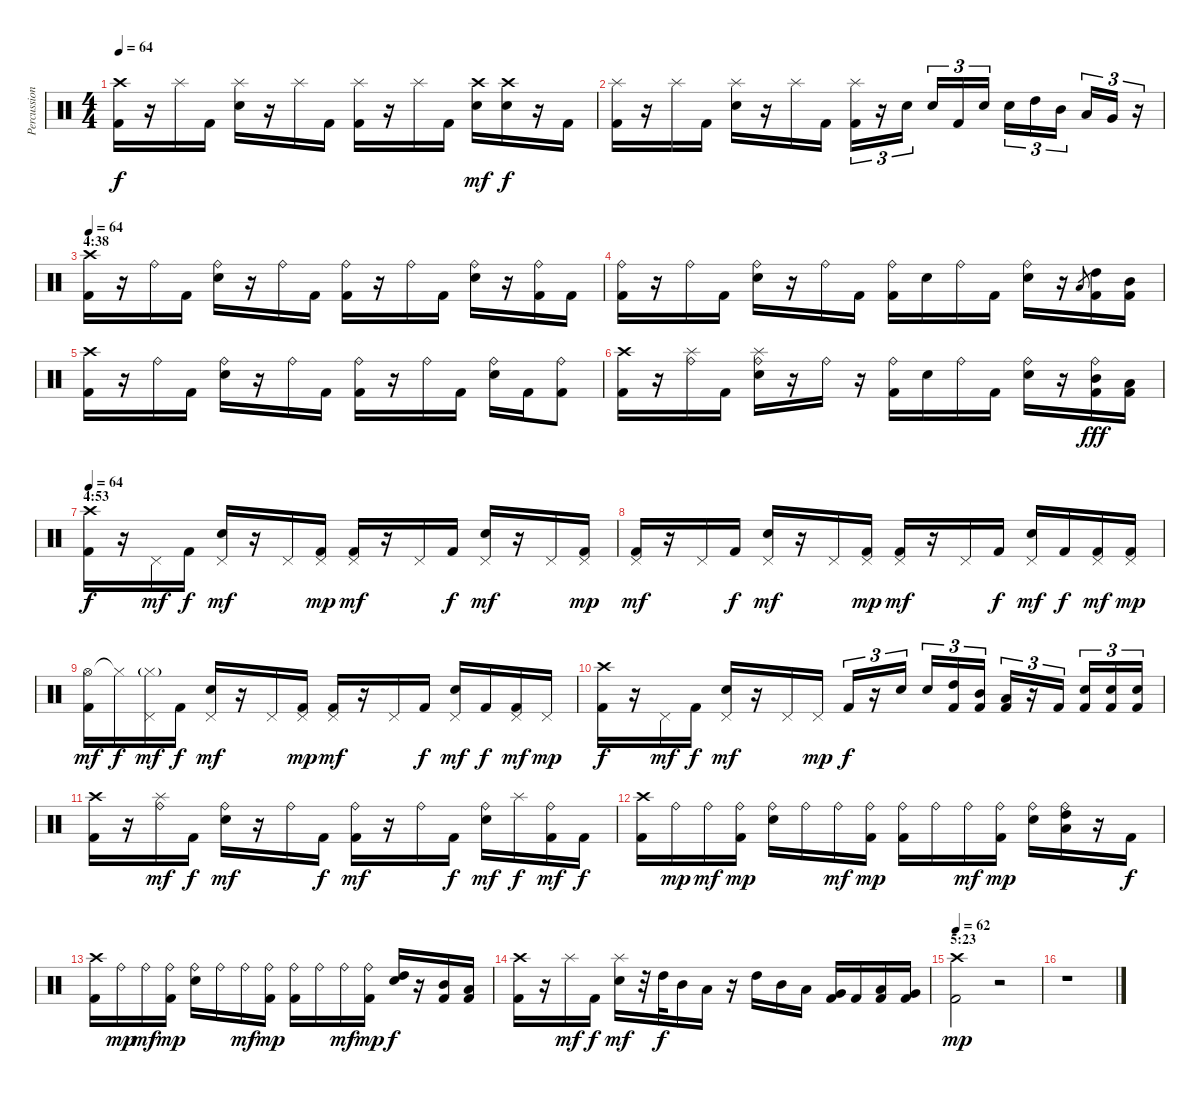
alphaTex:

\track ("Percussion" "Percussion") {instrument percussion}
\staff {score}
\articulation defaults
\ts (4 4)
\tempo 64
\clef neutral
\ks c
("Crash high (hit)" "Kick (hit) 2").16{dy f} r.16 "Splash (hit)".16 "Kick (hit) 2".16 ("Splash (hit)" "Snare (hit) 2").16 r.16 "Splash (hit)".16 "Kick (hit) 2".16 ("Splash (hit)" "Kick (hit) 2").16 r.16 "Splash (hit)".16 "Kick (hit) 2".16 ("Crash high (hit)" "Snare (hit) 2").16{dy mf} ("Crash high (hit)" "Snare (hit) 2").16{dy f} r.16 "Kick (hit) 2".16 |
("Splash (hit)" "Kick (hit) 2").16 r.16 "Splash (hit)".16 "Kick (hit) 2".16 ("Splash (hit)" "Snare (hit) 2").16 r.16 "Splash (hit)".16 "Kick (hit) 2".16 ("Splash (hit)" "Kick (hit) 2").16{tu (3 2)} r.16{tu (3 2)} "Snare (hit) 2".16{tu (3 2)} "Snare (hit) 2".16{tu (3 2)} "Kick (hit) 2".16{tu (3 2)} "Snare (hit) 2".16{tu (3 2)} "Snare (hit) 2".16{tu (3 2)} "High Tom (hit)".16{tu (3 2)} "Mid Tom (hit)".16{tu (3 2)} "Low Tom (hit)".16{tu (3 2)} "Very Low Tom (hit)".16{tu (3 2)} r.16{tu (3 2)} |
\section ("" "4:38")
\tempo 64
("Crash high (hit)" "Kick (hit) 2").16 r.16 "Ride (bell)".16 "Kick (hit) 2".16 ("Ride (bell)" "Snare (hit) 2").16 r.16 "Ride (bell)".16 "Kick (hit) 2".16 ("Ride (bell)" "Kick (hit) 2").16 r.16 "Ride (bell)".16 "Kick (hit) 2".16 ("Ride (bell)" "Snare (hit) 2").16 r.16 ("Ride (bell)" "Kick (hit) 2").16 "Kick (hit) 2".16 |
("Ride (bell)" "Kick (hit) 2").16 r.16 "Ride (bell)".16 "Kick (hit) 2".16 ("Ride (bell)" "Snare (hit) 2").16 r.16 "Ride (bell)".16 "Kick (hit) 2".16 ("Ride (bell)" "Kick (hit) 2").16 "Snare (hit) 2".16 "Ride (bell)".16 "Kick (hit) 2".16 ("Ride (bell)" "Snare (hit) 2").16 r.16 "Low Tom (hit)".8{gr} ("High Tom (hit)" "Kick (hit) 2").16 ("Mid Tom (hit)" "Kick (hit) 2").16 |
("Crash high (hit)" "Kick (hit) 2").16 r.16 "Ride (bell)".16 "Kick (hit) 2".16 ("Ride (bell)" "Snare (hit) 2").16 r.16 "Ride (bell)".16 "Kick (hit) 2".16 ("Ride (bell)" "Kick (hit) 2").16 r.16 "Ride (bell)".16 "Kick (hit) 2".16 ("Ride (bell)" "Snare (hit) 2").16 "Kick (hit) 2".16 ("Ride (bell)" "Kick (hit) 2").8 |
("Crash high (hit)" "Kick (hit) 2").16 r.16 ("Splash (hit)" "Ride (bell)").16 "Kick (hit) 2".16 ("Splash (hit)" "Ride (bell)" "Snare (hit) 2").16 r.16 "Ride (bell)".16 r.16 ("Ride (bell)" "Kick (hit) 2").16 "Snare (hit) 2".16 "Ride (bell)".16 "Kick (hit) 2".16 ("Ride (bell)" "Snare (hit) 2").16 r.16 ("Ride (bell)" "Mid Tom (hit)" "Kick (hit) 2").16{dy fff} ("Low Tom (hit)" "Kick (hit) 2").16 |
\section ("" "4:53")
\tempo 64
("Crash high (hit)" "Kick (hit) 2").16{dy f} r.16 "Pedal Hi-Hat (hit)".16{dy mf} "Kick (hit) 2".16{dy f} ("Pedal Hi-Hat (hit)" "Snare (hit) 2").16{dy mf} r.16 "Pedal Hi-Hat (hit)".16 ("Pedal Hi-Hat (hit)" "Kick (hit) 2").16{dy mp} ("Pedal Hi-Hat (hit)" "Kick (hit) 2").16{dy mf} r.16 "Pedal Hi-Hat (hit)".16 "Kick (hit) 2".16{dy f} ("Pedal Hi-Hat (hit)" "Snare (hit) 2").16{dy mf} r.16 "Pedal Hi-Hat (hit)".16 ("Pedal Hi-Hat (hit)" "Kick (hit) 2").16{dy mp} |
("Pedal Hi-Hat (hit)" "Kick (hit) 2").16{dy mf} r.16 "Pedal Hi-Hat (hit)".16 "Kick (hit) 2".16{dy f} ("Pedal Hi-Hat (hit)" "Snare (hit) 2").16{dy mf} r.16 "Pedal Hi-Hat (hit)".16 ("Pedal Hi-Hat (hit)" "Kick (hit) 2").16{dy mp} ("Pedal Hi-Hat (hit)" "Kick (hit) 2").16{dy mf} r.16 "Pedal Hi-Hat (hit)".16 "Kick (hit) 2".16{dy f} ("Pedal Hi-Hat (hit)" "Snare (hit) 2").16{dy mf} "Kick (hit) 2".16{dy f} ("Pedal Hi-Hat (hit)" "Kick (hit) 2").16{dy mf} ("Pedal Hi-Hat (hit)" "Kick (hit) 2").16{dy mp} |
("Hi-Hat (open)" "Kick (hit) 2").16{dy mf} "Hi-Hat (closed)"{t}.16{dy f} ("Hi-Hat (closed)"{g} "Pedal Hi-Hat (hit)").16{dy mf} "Kick (hit) 2".16{dy f} ("Pedal Hi-Hat (hit)" "Snare (hit) 2").16{dy mf} r.16 "Pedal Hi-Hat (hit)".16 ("Pedal Hi-Hat (hit)" "Kick (hit) 2").16{dy mp} ("Pedal Hi-Hat (hit)" "Kick (hit) 2").16{dy mf} r.16 "Pedal Hi-Hat (hit)".16 "Kick (hit) 2".16{dy f} ("Pedal Hi-Hat (hit)" "Snare (hit) 2").16{dy mf} "Kick (hit) 2".16{dy f} ("Pedal Hi-Hat (hit)" "Kick (hit) 2").16{dy mf} "Pedal Hi-Hat (hit)".16{dy mp} |
("Crash high (hit)" "Kick (hit) 2").16{dy f} r.16 "Pedal Hi-Hat (hit)".16{dy mf} "Kick (hit) 2".16{dy f} ("Pedal Hi-Hat (hit)" "Snare (hit) 2").16{dy mf} r.16 "Pedal Hi-Hat (hit)".16 "Pedal Hi-Hat (hit)".16{dy mp} "Kick (hit) 2".16{tu (3 2) dy f} r.16{tu (3 2)} "Snare (hit) 2".16{tu (3 2)} "Snare (hit) 2".16{tu (3 2)} ("High Tom (hit)" "Kick (hit) 2").16{tu (3 2)} ("Mid Tom (hit)" "Kick (hit) 2").16{tu (3 2)} ("Low Tom (hit)" "Kick (hit) 2").16{tu (3 2)} r.16{tu (3 2)} "Kick (hit) 2".16{tu (3 2)} ("Snare (hit) 2" "Kick (hit) 2").16{tu (3 2)} ("Snare (hit) 2" "Kick (hit) 2").16{tu (3 2)} ("Snare (hit) 2" "Kick (hit) 2").16{tu (3 2)} |
("Crash high (hit)" "Kick (hit) 2").16 r.16 ("Splash (hit)" "Ride (bell)").16{dy mf} "Kick (hit) 2".16{dy f} ("Ride (bell)" "Snare (hit) 2").16{dy mf} r.16 "Ride (bell)".16 "Kick (hit) 2".16{dy f} ("Ride (bell)" "Kick (hit) 2").16{dy mf} r.16 "Ride (bell)".16 "Kick (hit) 2".16{dy f} ("Ride (bell)" "Snare (hit) 2").16{dy mf} "Splash (hit)".16{dy f} ("Ride (bell)" "Kick (hit) 2").16{dy mf} "Kick (hit) 2".16{dy f} |
("Crash high (hit)" "Kick (hit) 2").16 "Ride (bell)".16{dy mp} "Ride (bell)".16{dy mf} ("Ride (bell)" "Kick (hit) 2").16{dy mp} ("Ride (bell)" "Snare (hit) 2").16 "Ride (bell)".16 "Ride (bell)".16{dy mf} ("Ride (bell)" "Kick (hit) 2").16{dy mp} ("Ride (bell)" "Kick (hit) 2").16 "Ride (bell)".16 "Ride (bell)".16{dy mf} ("Ride (bell)" "Kick (hit) 2").16{dy mp} ("Ride (bell)" "Snare (hit) 2").16 ("Ride (bell)" "High Tom (hit)" "Low Tom (hit)").16 r.16 "Kick (hit) 2".16{dy f} |
("Crash high (hit)" "Kick (hit) 2").16 "Ride (bell)".16{dy mp} "Ride (bell)".16{dy mf} ("Ride (bell)" "Kick (hit) 2").16{dy mp} ("Ride (bell)" "Snare (hit) 2").16 "Ride (bell)".16 "Ride (bell)".16{dy mf} ("Ride (bell)" "Kick (hit) 2").16{dy mp} ("Ride (bell)" "Kick (hit) 2").16 "Ride (bell)".16 "Ride (bell)".16{dy mf} ("Ride (bell)" "Kick (hit) 2").16{dy mp} ("High Tom (hit)" "Snare (hit) 2").16{dy f} r.16 ("Mid Tom (hit)" "Kick (hit) 2").16 ("Low Tom (hit)" "Kick (hit) 2").16 |
("Crash high (hit)" "Kick (hit) 2").16 r.16 "Splash (hit)".16{dy mf} "Kick (hit) 2".16{dy f} ("Splash (hit)" "Snare (hit) 2").16{dy mf} r.32 "High Tom (hit)".32{dy f} "Mid Tom (hit)".16 "Low Tom (hit)".16 r.16 "High Tom (hit)".16 "Mid Tom (hit)".16 "Low Tom (hit)".16 ("Very Low Tom (hit)" "Kick (hit) 2").16 "Kick (hit) 2".16 ("Low Tom (hit)" "Kick (hit) 2").16 ("Very Low Tom (hit)" "Kick (hit) 2").16 |
\section ("" "5:23")
\tempo 62
("Crash high (hit)" "Kick (hit) 2").2{dy mp} r.2 |
r.1
